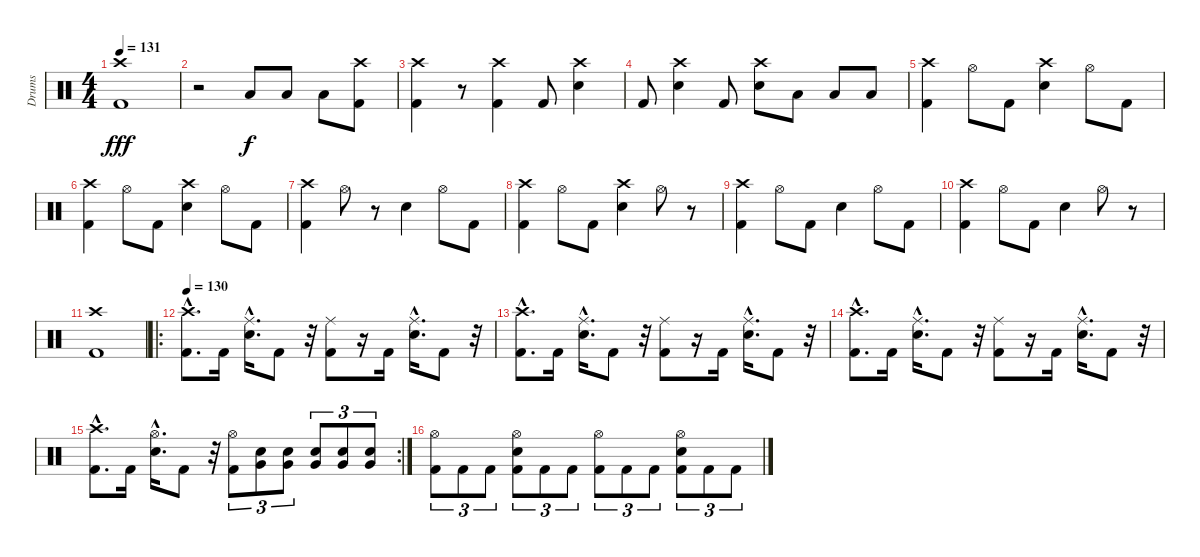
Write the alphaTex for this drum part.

\track ("Drums" "Drums") {instrument percussion}
\staff {score}
\articulation defaults
\ts (4 4)
\tempo 131
\clef neutral
\ks c
("Crash high (hit)" "Kick (hit) 2").1{dy fff} |
r.2 "Low Floor Tom (hit)".8{dy f volume 7} "Low Floor Tom (hit)".8{volume 10} "Low Floor Tom (hit)".8{volume 14} ("Crash high (hit)" "Kick (hit) 2").8 |
("Crash high (hit)" "Kick (hit) 2").4 r.8 ("Crash high (hit)" "Kick (hit) 2").4 "Kick (hit) 2".8 ("Crash high (hit)" "Snare (hit) 2").4 |
"Kick (hit) 2".8 ("Crash high (hit)" "Snare (hit) 2").4 "Kick (hit) 2".8 ("Crash high (hit)" "Snare (hit) 2").8 "Low Tom (hit)".8 "Low Tom (hit)".8 "Low Floor Tom (hit)".8 |
("Crash high (hit)" "Kick (hit) 2").4 "Hi-Hat (open)".8 "Kick (hit) 2".8 ("Crash high (hit)" "Snare (hit) 2").4 "Hi-Hat (open)".8 "Kick (hit) 2".8 |
("Crash high (hit)" "Kick (hit) 2").4 "Hi-Hat (open)".8 "Kick (hit) 2".8 ("Crash high (hit)" "Snare (hit) 2").4 "Hi-Hat (open)".8 "Kick (hit) 2".8 |
("Crash high (hit)" "Kick (hit) 2").4 "Hi-Hat (open)".8 r.8 "Snare (hit) 2".4 "Hi-Hat (open)".8 "Kick (hit) 2".8 |
("Crash high (hit)" "Kick (hit) 2").4 "Hi-Hat (open)".8 "Kick (hit) 2".8 ("Crash high (hit)" "Snare (hit) 2").4 "Hi-Hat (open)".8 r.8 |
("Crash high (hit)" "Kick (hit) 2").4 "Hi-Hat (open)".8 "Kick (hit) 2".8 "Snare (hit) 2".4 "Hi-Hat (open)".8 "Kick (hit) 2".8 |
("Crash high (hit)" "Kick (hit) 2").4 "Hi-Hat (open)".8 "Kick (hit) 2".8 "Snare (hit) 2".4 "Hi-Hat (open)".8 r.8 |
("Crash high (hit)" "Kick (hit) 2").1 |
\ro
\tempo 130
("Crash high (hit)"{hac} "Kick (hit) 2"{hac}).8{d} "Kick (hit) 2".16 ("Ride (middle)"{hac} "Snare (hit) 2"{hac}).16{d} "Kick (hit) 2".8 r.32 ("Ride (middle)" "Kick (hit) 2").8 r.16 "Kick (hit) 2".16 ("Ride (middle)"{hac} "Snare (hit) 2"{hac}).16{d} "Kick (hit) 2".8 r.32 |
("Crash high (hit)"{hac} "Kick (hit) 2"{hac}).8{d} "Kick (hit) 2".16 ("Ride (middle)"{hac} "Snare (hit) 2"{hac}).16{d} "Kick (hit) 2".8 r.32 ("Ride (middle)" "Kick (hit) 2").8 r.16 "Kick (hit) 2".16 ("Ride (middle)"{hac} "Snare (hit) 2"{hac}).16{d} "Kick (hit) 2".8 r.32 |
("Crash high (hit)"{hac} "Kick (hit) 2"{hac}).8{d} "Kick (hit) 2".16 ("Ride (middle)"{hac} "Snare (hit) 2"{hac}).16{d} "Kick (hit) 2".8 r.32 ("Ride (middle)" "Kick (hit) 2").8 r.16 "Kick (hit) 2".16 ("Ride (middle)"{hac} "Snare (hit) 2"{hac}).16{d} "Kick (hit) 2".8 r.32 |
\rc 2
("Crash high (hit)"{hac} "Kick (hit) 2"{hac}).8{d} "Kick (hit) 2".16 ("Hi-Hat (open)"{hac} "Snare (hit) 2"{hac}).16{d} "Kick (hit) 2".8 r.32 ("Hi-Hat (open)" "Kick (hit) 2").8{tu (3 2)} ("Snare (hit) 2" "Very Low Tom (hit)").8{tu (3 2)} ("Snare (hit) 2" "Very Low Tom (hit)").8{tu (3 2)} ("Snare (hit) 2" "Very Low Tom (hit)").8{tu (3 2)} ("Snare (hit) 2" "Very Low Tom (hit)").8{tu (3 2)} ("Snare (hit) 2" "Very Low Tom (hit)").8{tu (3 2)} |
("Hi-Hat (open)" "Kick (hit) 2").8{tu (3 2)} "Kick (hit) 2".8{tu (3 2)} "Kick (hit) 2".8{tu (3 2)} ("Hi-Hat (open)" "Snare (hit) 2" "Kick (hit) 2").8{tu (3 2)} "Kick (hit) 2".8{tu (3 2)} "Kick (hit) 2".8{tu (3 2)} ("Hi-Hat (open)" "Kick (hit) 2").8{tu (3 2)} "Kick (hit) 2".8{tu (3 2)} "Kick (hit) 2".8{tu (3 2)} ("Hi-Hat (open)" "Snare (hit) 2" "Kick (hit) 2").8{tu (3 2)} "Kick (hit) 2".8{tu (3 2)} "Kick (hit) 2".8{tu (3 2)}
